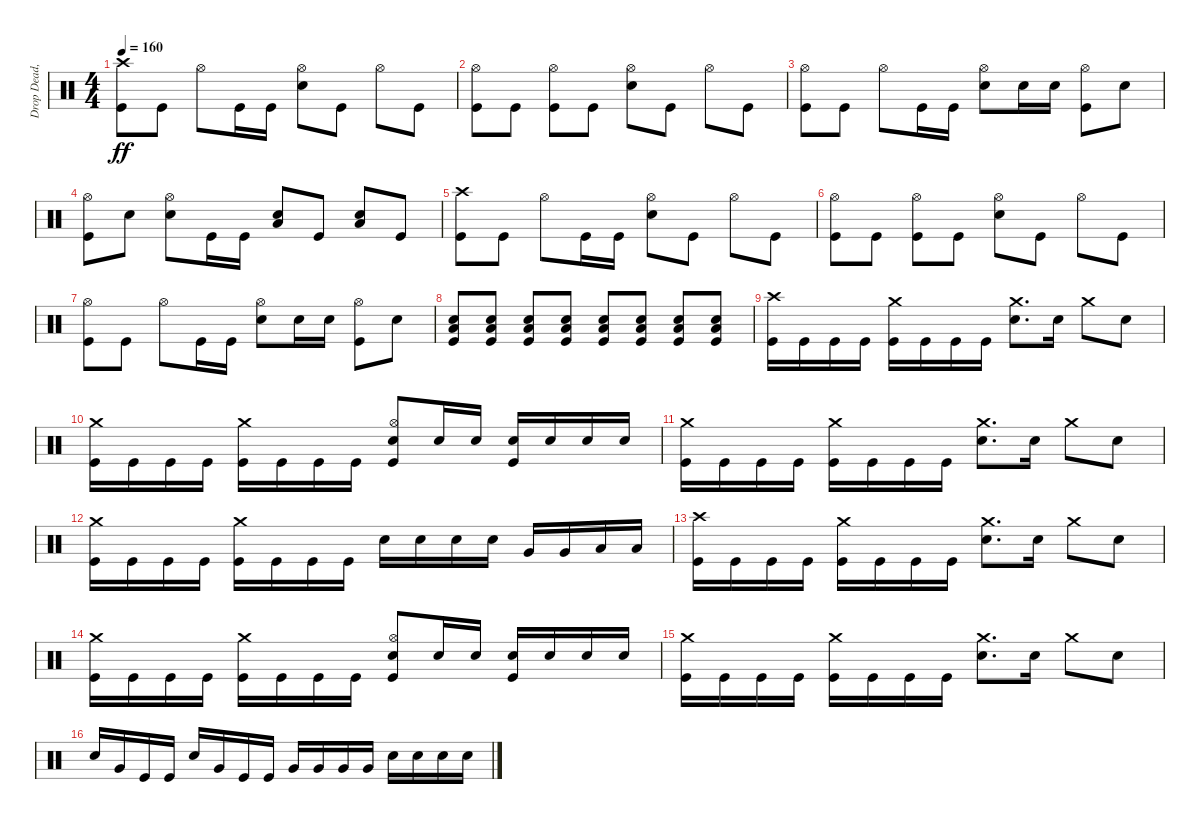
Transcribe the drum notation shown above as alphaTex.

\track ("Drop Dead, Johnny" "Drop Dead,") {instrument percussion}
\staff {score}
\articulation defaults
\ts (4 4)
\tempo 160
\clef neutral
\ks c
("Crash high (hit)" "Kick (hit)").8{dy ff} "Kick (hit)".8 "Hi-Hat (open)".8 "Kick (hit)".16 "Kick (hit)".16 ("Hi-Hat (open)" "Electric Snare (hit)").8 "Kick (hit)".8 "Hi-Hat (open)".8 "Kick (hit)".8 |
("Hi-Hat (open)" "Kick (hit)").8 "Kick (hit)".8 ("Hi-Hat (open)" "Kick (hit)").8 "Kick (hit)".8 ("Hi-Hat (open)" "Electric Snare (hit)").8 "Kick (hit)".8 "Hi-Hat (open)".8 "Kick (hit)".8 |
("Hi-Hat (open)" "Kick (hit)").8 "Kick (hit)".8 "Hi-Hat (open)".8 "Kick (hit)".16 "Kick (hit)".16 ("Hi-Hat (open)" "Electric Snare (hit)").8 "Electric Snare (hit)".16 "Electric Snare (hit)".16 ("Hi-Hat (open)" "Kick (hit)").8 "Electric Snare (hit)".8 |
("Hi-Hat (open)" "Kick (hit)").8 "Electric Snare (hit)".8 ("Hi-Hat (open)" "Electric Snare (hit)").8 "Kick (hit)".16 "Kick (hit)".16 ("Low Floor Tom (hit)" "Electric Snare (hit)").8 "Kick (hit)".8 ("Low Floor Tom (hit)" "Electric Snare (hit)").8 "Kick (hit)".8 |
("Crash high (hit)" "Kick (hit)").8 "Kick (hit)".8 "Hi-Hat (open)".8 "Kick (hit)".16 "Kick (hit)".16 ("Hi-Hat (open)" "Electric Snare (hit)").8 "Kick (hit)".8 "Hi-Hat (open)".8 "Kick (hit)".8 |
("Hi-Hat (open)" "Kick (hit)").8 "Kick (hit)".8 ("Hi-Hat (open)" "Kick (hit)").8 "Kick (hit)".8 ("Hi-Hat (open)" "Electric Snare (hit)").8 "Kick (hit)".8 "Hi-Hat (open)".8 "Kick (hit)".8 |
("Hi-Hat (open)" "Kick (hit)").8 "Kick (hit)".8 "Hi-Hat (open)".8 "Kick (hit)".16 "Kick (hit)".16 ("Hi-Hat (open)" "Electric Snare (hit)").8 "Electric Snare (hit)".16 "Electric Snare (hit)".16 ("Hi-Hat (open)" "Kick (hit)").8 "Electric Snare (hit)".8 |
("Low Floor Tom (hit)" "Electric Snare (hit)" "Kick (hit)").8{volume 12} ("Low Floor Tom (hit)" "Electric Snare (hit)" "Kick (hit)").8{volume 16} ("Low Floor Tom (hit)" "Electric Snare (hit)" "Kick (hit)").8 ("Low Floor Tom (hit)" "Electric Snare (hit)" "Kick (hit)").8 ("Low Floor Tom (hit)" "Electric Snare (hit)" "Kick (hit)").8 ("Low Floor Tom (hit)" "Electric Snare (hit)" "Kick (hit)").8 ("Low Floor Tom (hit)" "Electric Snare (hit)" "Kick (hit)").8 ("Low Floor Tom (hit)" "Electric Snare (hit)" "Kick (hit)").8 |
("Crash high (hit)" "Kick (hit)").16 "Kick (hit)".16 "Kick (hit)".16 "Kick (hit)".16 ("Crash medium (hit)" "Kick (hit)").16 "Kick (hit)".16 "Kick (hit)".16 "Kick (hit)".16 ("Crash medium (hit)" "Electric Snare (hit)").8{d} "Electric Snare (hit)".16 "Crash medium (hit)".8 "Electric Snare (hit)".8 |
("Crash medium (hit)" "Kick (hit)").16 "Kick (hit)".16 "Kick (hit)".16 "Kick (hit)".16 ("Crash medium (hit)" "Kick (hit)").16 "Kick (hit)".16 "Kick (hit)".16 "Kick (hit)".16 ("Hi-Hat (open)" "Electric Snare (hit)" "Kick (hit)").8 "Electric Snare (hit)".16 "Electric Snare (hit)".16 ("Electric Snare (hit)" "Kick (hit)").16 "Electric Snare (hit)".16 "Electric Snare (hit)".16 "Electric Snare (hit)".16 |
("Crash medium (hit)" "Kick (hit)").16 "Kick (hit)".16 "Kick (hit)".16 "Kick (hit)".16 ("Crash medium (hit)" "Kick (hit)").16 "Kick (hit)".16 "Kick (hit)".16 "Kick (hit)".16 ("Crash medium (hit)" "Electric Snare (hit)").8{d} "Electric Snare (hit)".16 "Crash medium (hit)".8 "Electric Snare (hit)".8 |
("Crash medium (hit)" "Kick (hit)").16 "Kick (hit)".16 "Kick (hit)".16 "Kick (hit)".16 ("Crash medium (hit)" "Kick (hit)").16 "Kick (hit)".16 "Kick (hit)".16 "Kick (hit)".16 "Electric Snare (hit)".16 "Electric Snare (hit)".16 "Electric Snare (hit)".16 "Electric Snare (hit)".16 "Very Low Tom (hit)".16 "Very Low Tom (hit)".16 "Low Floor Tom (hit)".16 "Low Floor Tom (hit)".16 |
("Crash high (hit)" "Kick (hit)").16 "Kick (hit)".16 "Kick (hit)".16 "Kick (hit)".16 ("Crash medium (hit)" "Kick (hit)").16 "Kick (hit)".16 "Kick (hit)".16 "Kick (hit)".16 ("Crash medium (hit)" "Electric Snare (hit)").8{d} "Electric Snare (hit)".16 "Crash medium (hit)".8 "Electric Snare (hit)".8 |
("Crash medium (hit)" "Kick (hit)").16 "Kick (hit)".16 "Kick (hit)".16 "Kick (hit)".16 ("Crash medium (hit)" "Kick (hit)").16 "Kick (hit)".16 "Kick (hit)".16 "Kick (hit)".16 ("Hi-Hat (open)" "Electric Snare (hit)" "Kick (hit)").8 "Electric Snare (hit)".16 "Electric Snare (hit)".16 ("Electric Snare (hit)" "Kick (hit)").16 "Electric Snare (hit)".16 "Electric Snare (hit)".16 "Electric Snare (hit)".16 |
("Crash medium (hit)" "Kick (hit)").16 "Kick (hit)".16 "Kick (hit)".16 "Kick (hit)".16 ("Crash medium (hit)" "Kick (hit)").16 "Kick (hit)".16 "Kick (hit)".16 "Kick (hit)".16 ("Crash medium (hit)" "Electric Snare (hit)").8{d} "Electric Snare (hit)".16 "Crash medium (hit)".8 "Electric Snare (hit)".8 |
"Electric Snare (hit)".16 "Very Low Tom (hit)".16 "Kick (hit)".16 "Kick (hit)".16 "Electric Snare (hit)".16 "Very Low Tom (hit)".16 "Kick (hit)".16 "Kick (hit)".16 "Very Low Tom (hit)".16 "Very Low Tom (hit)".16 "Very Low Tom (hit)".16 "Very Low Tom (hit)".16 "Electric Snare (hit)".16 "Electric Snare (hit)".16 "Electric Snare (hit)".16 "Electric Snare (hit)".16
